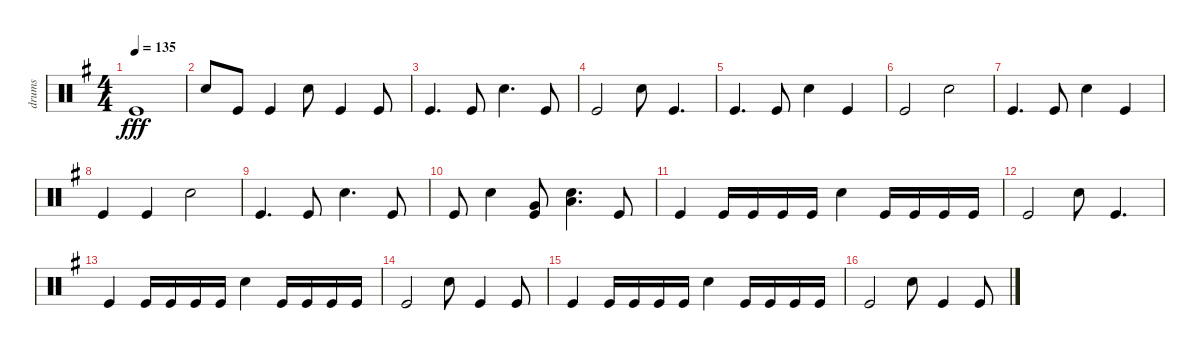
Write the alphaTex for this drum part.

\track ("drums" "drums") {instrument percussion}
\staff {score}
\articulation defaults
\ts (4 4)
\tempo 135
\clef neutral
\ks eminor "Kick (hit)".1{dy fff}
|
"Electric Snare (hit)".8 "Kick (hit)".8 "Kick (hit)".4 "Electric Snare (hit)".8 "Kick (hit)".4 "Kick (hit)".8 |
"Kick (hit)".4{d} "Kick (hit)".8 "Electric Snare (hit)".4{d} "Kick (hit)".8 |
"Kick (hit)".2 "Electric Snare (hit)".8 "Kick (hit)".4{d} |
"Kick (hit)".4{d} "Kick (hit)".8 "Electric Snare (hit)".4 "Kick (hit)".4 |
"Kick (hit)".2 "Electric Snare (hit)".2 |
"Kick (hit)".4{d} "Kick (hit)".8 "Electric Snare (hit)".4 "Kick (hit)".4 |
"Kick (hit)".4 "Kick (hit)".4 "Electric Snare (hit)".2 |
"Kick (hit)".4{d} "Kick (hit)".8 "Electric Snare (hit)".4{d} "Kick (hit)".8 |
"Kick (hit)".8 "Electric Snare (hit)".4 ("Very Low Tom (hit)" "Kick (hit)").8 ("Low Floor Tom (hit)" "Electric Snare (hit)").4{d} "Kick (hit)".8 |
"Kick (hit)".4 "Kick (hit)".16 "Kick (hit)".16 "Kick (hit)".16 "Kick (hit)".16 "Electric Snare (hit)".4 "Kick (hit)".16 "Kick (hit)".16 "Kick (hit)".16 "Kick (hit)".16 |
"Kick (hit)".2 "Electric Snare (hit)".8 "Kick (hit)".4{d} |
"Kick (hit)".4 "Kick (hit)".16 "Kick (hit)".16 "Kick (hit)".16 "Kick (hit)".16 "Electric Snare (hit)".4 "Kick (hit)".16 "Kick (hit)".16 "Kick (hit)".16 "Kick (hit)".16 |
"Kick (hit)".2 "Electric Snare (hit)".8 "Kick (hit)".4 "Kick (hit)".8 |
"Kick (hit)".4 "Kick (hit)".16 "Kick (hit)".16 "Kick (hit)".16 "Kick (hit)".16 "Electric Snare (hit)".4 "Kick (hit)".16 "Kick (hit)".16 "Kick (hit)".16 "Kick (hit)".16 |
"Kick (hit)".2 "Electric Snare (hit)".8 "Kick (hit)".4 "Kick (hit)".8
